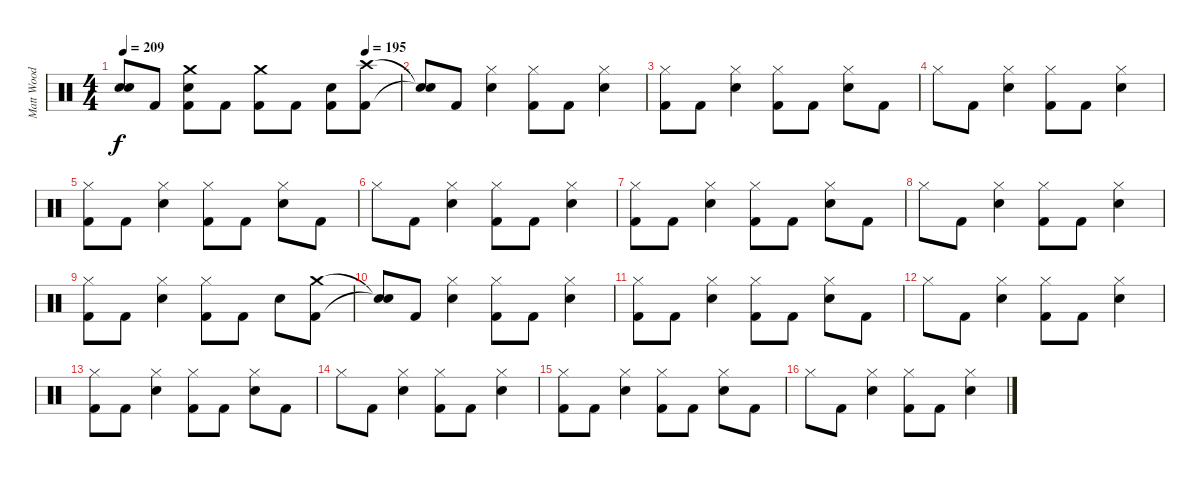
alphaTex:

\track ("Matt Wood" "Matt Wood") {instrument percussion}
\staff {score}
\articulation defaults
\ts (4 4)
\tempo 209
\tempo (195 0.875)
\clef neutral
\ks c
("Snare (hit)"{t} "Snare (hit)"{t}).8{dy f} "Kick (hit) 2".8 ("Crash medium (hit)" "Snare (hit) 2" "Kick (hit) 2").8 "Kick (hit) 2".8 ("Crash medium (hit)" "Kick (hit) 2").8 "Kick (hit) 2".8 ("Snare (hit) 2" "Kick (hit) 2").8 ("Crash high (hit)" "Kick (hit) 2").8 |
("Snare (hit)"{t} "Snare (hit)"{t}).8 "Kick (hit) 2".8 ("Hi-Hat (closed)" "Snare (hit) 2").4 ("Hi-Hat (closed)" "Kick (hit) 2").8 "Kick (hit) 2".8 ("Hi-Hat (closed)" "Snare (hit) 2").4 |
("Hi-Hat (closed)" "Kick (hit) 2").8 "Kick (hit) 2".8 ("Hi-Hat (closed)" "Snare (hit) 2").4 ("Hi-Hat (closed)" "Kick (hit) 2").8 "Kick (hit) 2".8 ("Hi-Hat (closed)" "Snare (hit) 2").8 "Kick (hit) 2".8 |
"Hi-Hat (closed)".8 "Kick (hit) 2".8 ("Hi-Hat (closed)" "Snare (hit) 2").4 ("Hi-Hat (closed)" "Kick (hit) 2").8 "Kick (hit) 2".8 ("Hi-Hat (closed)" "Snare (hit) 2").4 |
("Hi-Hat (closed)" "Kick (hit) 2").8 "Kick (hit) 2".8 ("Hi-Hat (closed)" "Snare (hit) 2").4 ("Hi-Hat (closed)" "Kick (hit) 2").8 "Kick (hit) 2".8 ("Hi-Hat (closed)" "Snare (hit) 2").8 "Kick (hit) 2".8 |
"Hi-Hat (closed)".8 "Kick (hit) 2".8 ("Hi-Hat (closed)" "Snare (hit) 2").4 ("Hi-Hat (closed)" "Kick (hit) 2").8 "Kick (hit) 2".8 ("Hi-Hat (closed)" "Snare (hit) 2").4 |
("Hi-Hat (closed)" "Kick (hit) 2").8 "Kick (hit) 2".8 ("Hi-Hat (closed)" "Snare (hit) 2").4 ("Hi-Hat (closed)" "Kick (hit) 2").8 "Kick (hit) 2".8 ("Hi-Hat (closed)" "Snare (hit) 2").8 "Kick (hit) 2".8 |
"Hi-Hat (closed)".8 "Kick (hit) 2".8 ("Hi-Hat (closed)" "Snare (hit) 2").4 ("Hi-Hat (closed)" "Kick (hit) 2").8 "Kick (hit) 2".8 ("Hi-Hat (closed)" "Snare (hit) 2").4 |
("Hi-Hat (closed)" "Kick (hit) 2").8 "Kick (hit) 2".8 ("Hi-Hat (closed)" "Snare (hit) 2").4 ("Hi-Hat (closed)" "Kick (hit) 2").8 "Kick (hit) 2".8 "Snare (hit) 2".8 ("Crash medium (hit)" "Kick (hit) 2").8 |
("Snare (hit)"{t} "Snare (hit)"{t}).8 "Kick (hit) 2".8 ("Hi-Hat (closed)" "Snare (hit) 2").4 ("Hi-Hat (closed)" "Kick (hit) 2").8 "Kick (hit) 2".8 ("Hi-Hat (closed)" "Snare (hit) 2").4 |
("Hi-Hat (closed)" "Kick (hit) 2").8 "Kick (hit) 2".8 ("Hi-Hat (closed)" "Snare (hit) 2").4 ("Hi-Hat (closed)" "Kick (hit) 2").8 "Kick (hit) 2".8 ("Hi-Hat (closed)" "Snare (hit) 2").8 "Kick (hit) 2".8 |
"Hi-Hat (closed)".8 "Kick (hit) 2".8 ("Hi-Hat (closed)" "Snare (hit) 2").4 ("Hi-Hat (closed)" "Kick (hit) 2").8 "Kick (hit) 2".8 ("Hi-Hat (closed)" "Snare (hit) 2").4 |
("Hi-Hat (closed)" "Kick (hit) 2").8 "Kick (hit) 2".8 ("Hi-Hat (closed)" "Snare (hit) 2").4 ("Hi-Hat (closed)" "Kick (hit) 2").8 "Kick (hit) 2".8 ("Hi-Hat (closed)" "Snare (hit) 2").8 "Kick (hit) 2".8 |
"Hi-Hat (closed)".8 "Kick (hit) 2".8 ("Hi-Hat (closed)" "Snare (hit) 2").4 ("Hi-Hat (closed)" "Kick (hit) 2").8 "Kick (hit) 2".8 ("Hi-Hat (closed)" "Snare (hit) 2").4 |
("Hi-Hat (closed)" "Kick (hit) 2").8 "Kick (hit) 2".8 ("Hi-Hat (closed)" "Snare (hit) 2").4 ("Hi-Hat (closed)" "Kick (hit) 2").8 "Kick (hit) 2".8 ("Hi-Hat (closed)" "Snare (hit) 2").8 "Kick (hit) 2".8 |
"Hi-Hat (closed)".8 "Kick (hit) 2".8 ("Hi-Hat (closed)" "Snare (hit) 2").4 ("Hi-Hat (closed)" "Kick (hit) 2").8 "Kick (hit) 2".8 ("Hi-Hat (closed)" "Snare (hit) 2").4
